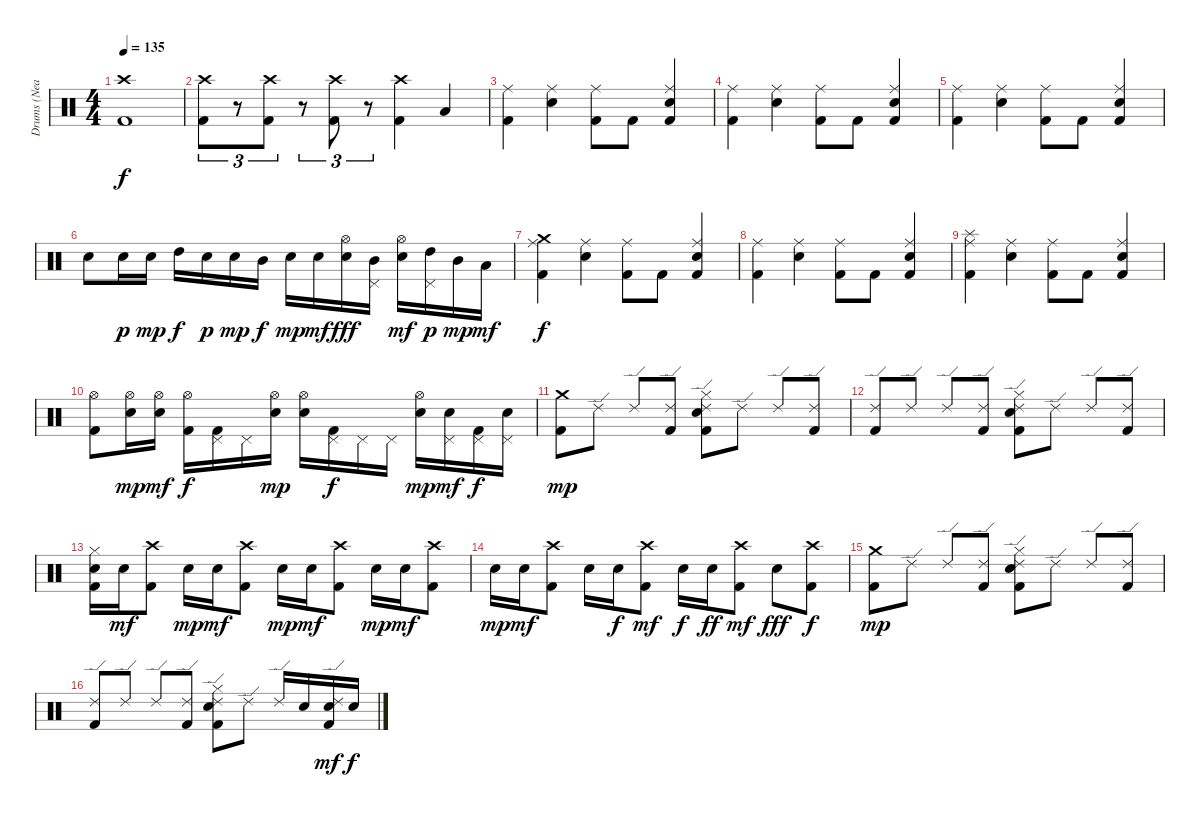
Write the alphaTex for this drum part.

\track ("Drums (Neal Peart)" "Drums (Nea") {instrument percussion}
\staff {score}
\articulation defaults
\ts (4 4)
\tempo 135
\clef neutral
\ks c
("Crash high (hit)" "Kick (hit) 2").1{dy f} |
("Crash high (hit)" "Kick (hit) 2").8{tu (3 2)} r.8{tu (3 2) volume 0} ("Crash high (hit)" "Kick (hit) 2").8{tu (3 2) volume 16} r.8{tu (3 2) volume 0} ("Crash high (hit)" "Kick (hit) 2").8{tu (3 2) volume 16} r.8{tu (3 2) volume 0} ("Crash high (hit)" "Kick (hit) 2").4{volume 16} "Low Tom (hit)".4 |
("Ride (middle)" "Kick (hit) 2").4 ("Ride (middle)" "Electric Snare (hit)").4 ("Ride (middle)" "Kick (hit) 2").8 "Kick (hit) 2".8 ("Ride (middle)" "Electric Snare (hit)" "Kick (hit) 2").4 |
("Ride (middle)" "Kick (hit) 2").4 ("Ride (middle)" "Electric Snare (hit)").4 ("Ride (middle)" "Kick (hit) 2").8 "Kick (hit) 2".8 ("Ride (middle)" "Electric Snare (hit)" "Kick (hit) 2").4 |
("Ride (middle)" "Kick (hit) 2").4 ("Ride (middle)" "Electric Snare (hit)").4 ("Ride (middle)" "Kick (hit) 2").8 "Kick (hit) 2".8 ("Ride (middle)" "Electric Snare (hit)" "Kick (hit) 2").4 |
"Electric Snare (hit)".8 "Electric Snare (hit)".16{dy p} "Electric Snare (hit)".16{dy mp} "High Tom (hit)".16{dy f} "Electric Snare (hit)".16{dy p} "Electric Snare (hit)".16{dy mp} "Mid Tom (hit)".16{dy f} "Electric Snare (hit)".16{dy mp} "Electric Snare (hit)".16{dy mf} ("Hi-Hat (open)" "Electric Snare (hit)").16{dy fff} ("Pedal Hi-Hat (hit)" "Mid Tom (hit)").16 ("Hi-Hat (open)" "Electric Snare (hit)").16{dy mf} ("Pedal Hi-Hat (hit)" "High Tom (hit)").16{dy p} "Mid Tom (hit)".16{dy mp} "Low Tom (hit)".16{dy mf} |
("Crash medium (hit)" "Ride (middle)" "Kick (hit) 2").4{dy f} ("Ride (middle)" "Electric Snare (hit)").4 ("Ride (middle)" "Kick (hit) 2").8 "Kick (hit) 2".8 ("Ride (middle)" "Electric Snare (hit)" "Kick (hit) 2").4 |
("Ride (middle)" "Kick (hit) 2").4 ("Ride (middle)" "Electric Snare (hit)").4 ("Ride (middle)" "Kick (hit) 2").8 "Kick (hit) 2".8 ("Ride (middle)" "Electric Snare (hit)" "Kick (hit) 2").4 |
("Splash (hit)" "Ride (middle)" "Kick (hit) 2").4 ("Ride (middle)" "Electric Snare (hit)").4 ("Ride (middle)" "Kick (hit) 2").8 "Kick (hit) 2".8 ("Ride (middle)" "Electric Snare (hit)" "Kick (hit) 2").4 |
("Hi-Hat (open)" "Kick (hit) 2").8 ("Hi-Hat (open)" "Electric Snare (hit)").16{dy mp} ("Hi-Hat (open)" "Electric Snare (hit)").16{dy mf} ("Hi-Hat (open)" "Kick (hit) 2").16{dy f} ("Pedal Hi-Hat (hit)" "Kick (hit) 2").16 "Pedal Hi-Hat (hit)".16 ("Hi-Hat (open)" "Electric Snare (hit)").16{dy mp} ("Hi-Hat (open)" "Electric Snare (hit)").16 ("Pedal Hi-Hat (hit)" "Kick (hit) 2").16{dy f} "Pedal Hi-Hat (hit)".16 "Pedal Hi-Hat (hit)".16 ("Hi-Hat (open)" "Electric Snare (hit)").16{dy mp} ("Pedal Hi-Hat (hit)" "Electric Snare (hit)").16{dy mf} ("Pedal Hi-Hat (hit)" "Kick (hit) 2").16{dy f} ("Pedal Hi-Hat (hit)" "Electric Snare (hit)").16 |
("Crash medium (hit)" "Kick (hit) 2").8{dy mp} "Ride (edge) 2".8 "Ride (edge) 2".8 ("Ride (edge) 2" "Kick (hit) 2").8 ("Ride (edge) 2" "Hi-Hat (closed)" "Electric Snare (hit)" "Kick (hit) 2").8 "Ride (edge) 2".8 "Ride (edge) 2".8 ("Ride (edge) 2" "Kick (hit) 2").8 |
("Ride (edge) 2" "Kick (hit) 2").8 "Ride (edge) 2".8 "Ride (edge) 2".8 ("Ride (edge) 2" "Kick (hit) 2").8 ("Ride (edge) 2" "Hi-Hat (closed)" "Electric Snare (hit)" "Kick (hit) 2").8 "Ride (edge) 2".8 "Ride (edge) 2".8 ("Ride (edge) 2" "Kick (hit) 2").8 |
("Hi-Hat (closed)" "Electric Snare (hit)" "Kick (hit) 2").16 "Electric Snare (hit)".16{dy mf} ("Crash high (hit)" "Kick (hit) 2").8 "Electric Snare (hit)".16{dy mp} "Electric Snare (hit)".16{dy mf} ("Crash high (hit)" "Kick (hit) 2").8 "Electric Snare (hit)".16{dy mp} "Electric Snare (hit)".16{dy mf} ("Crash high (hit)" "Kick (hit) 2").8 "Electric Snare (hit)".16{dy mp} "Electric Snare (hit)".16{dy mf} ("Crash high (hit)" "Kick (hit) 2").8 |
"Electric Snare (hit)".16{dy mp} "Electric Snare (hit)".16{dy mf} ("Crash high (hit)" "Kick (hit) 2").8 "Electric Snare (hit)".16 "Electric Snare (hit)".16{dy f} ("Crash high (hit)" "Kick (hit) 2").8{dy mf} "Electric Snare (hit)".16{dy f} "Electric Snare (hit)".16{dy ff} ("Crash high (hit)" "Kick (hit) 2").8{dy mf} "Electric Snare (hit)".8{dy fff} ("Crash high (hit)" "Kick (hit) 2").8{dy f} |
("Crash medium (hit)" "Kick (hit) 2").8{dy mp volume 16} "Ride (edge) 2".8 "Ride (edge) 2".8 ("Ride (edge) 2" "Kick (hit) 2").8 ("Ride (edge) 2" "Hi-Hat (closed)" "Electric Snare (hit)" "Kick (hit) 2").8 "Ride (edge) 2".8 "Ride (edge) 2".8 ("Ride (edge) 2" "Kick (hit) 2").8 |
("Ride (edge) 2" "Kick (hit) 2").8 "Ride (edge) 2".8 "Ride (edge) 2".8 ("Ride (edge) 2" "Kick (hit) 2").8 ("Ride (edge) 2" "Hi-Hat (closed)" "Electric Snare (hit)" "Kick (hit) 2").8 "Ride (edge) 2".8 "Ride (edge) 2".16 "Electric Snare (hit)".16 ("Ride (edge) 2" "Electric Snare (hit)" "Kick (hit) 2").16{dy mf} "Electric Snare (hit)".16{dy f}
